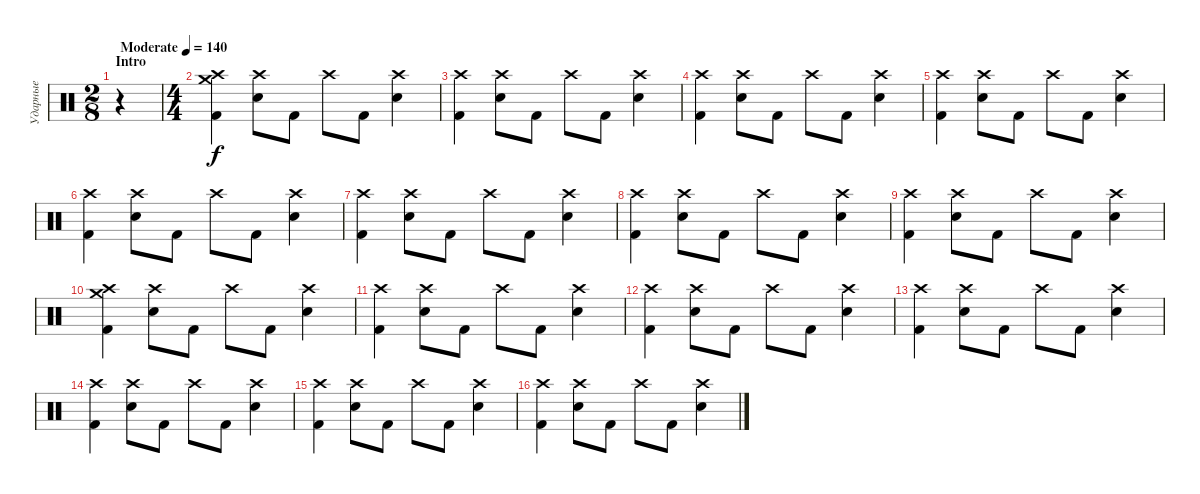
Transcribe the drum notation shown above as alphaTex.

\track ("Ударные" "Ударные") {instrument percussion}
\staff {score}
\articulation defaults
\ts (2 8)
\section ("" "Intro")
\tempo (140 "Moderate")
\clef neutral
\ks c
r.4{dy f} |
\ts (4 4)
("Crash high (hit)" "Crash medium (hit)" "Kick (hit) 2").4 ("Crash high (hit)" "Electric Snare (hit)").8 "Kick (hit) 2".8 "Crash high (hit)".8 "Kick (hit) 2".8 ("Crash high (hit)" "Electric Snare (hit)").4 |
("Crash high (hit)" "Kick (hit) 2").4 ("Crash high (hit)" "Electric Snare (hit)").8 "Kick (hit) 2".8 "Crash high (hit)".8 "Kick (hit) 2".8 ("Crash high (hit)" "Electric Snare (hit)").4 |
("Crash high (hit)" "Kick (hit) 2").4 ("Crash high (hit)" "Electric Snare (hit)").8 "Kick (hit) 2".8 "Crash high (hit)".8 "Kick (hit) 2".8 ("Crash high (hit)" "Electric Snare (hit)").4 |
("Crash high (hit)" "Kick (hit) 2").4 ("Crash high (hit)" "Electric Snare (hit)").8 "Kick (hit) 2".8 "Crash high (hit)".8 "Kick (hit) 2".8 ("Crash high (hit)" "Electric Snare (hit)").4 |
("Crash high (hit)" "Kick (hit) 2").4 ("Crash high (hit)" "Electric Snare (hit)").8 "Kick (hit) 2".8 "Crash high (hit)".8 "Kick (hit) 2".8 ("Crash high (hit)" "Electric Snare (hit)").4 |
("Crash high (hit)" "Kick (hit) 2").4 ("Crash high (hit)" "Electric Snare (hit)").8 "Kick (hit) 2".8 "Crash high (hit)".8 "Kick (hit) 2".8 ("Crash high (hit)" "Electric Snare (hit)").4 |
("Crash high (hit)" "Kick (hit) 2").4 ("Crash high (hit)" "Electric Snare (hit)").8 "Kick (hit) 2".8 "Crash high (hit)".8 "Kick (hit) 2".8 ("Crash high (hit)" "Electric Snare (hit)").4 |
("Crash high (hit)" "Kick (hit) 2").4 ("Crash high (hit)" "Electric Snare (hit)").8 "Kick (hit) 2".8 "Crash high (hit)".8 "Kick (hit) 2".8 ("Crash high (hit)" "Electric Snare (hit)").4 |
("Crash high (hit)" "Crash medium (hit)" "Kick (hit) 2").4 ("Crash high (hit)" "Electric Snare (hit)").8 "Kick (hit) 2".8 "Crash high (hit)".8 "Kick (hit) 2".8 ("Crash high (hit)" "Electric Snare (hit)").4 |
("Crash high (hit)" "Kick (hit) 2").4 ("Crash high (hit)" "Electric Snare (hit)").8 "Kick (hit) 2".8 "Crash high (hit)".8 "Kick (hit) 2".8 ("Crash high (hit)" "Electric Snare (hit)").4 |
("Crash high (hit)" "Kick (hit) 2").4 ("Crash high (hit)" "Electric Snare (hit)").8 "Kick (hit) 2".8 "Crash high (hit)".8 "Kick (hit) 2".8 ("Crash high (hit)" "Electric Snare (hit)").4 |
("Crash high (hit)" "Kick (hit) 2").4 ("Crash high (hit)" "Electric Snare (hit)").8 "Kick (hit) 2".8 "Crash high (hit)".8 "Kick (hit) 2".8 ("Crash high (hit)" "Electric Snare (hit)").4 |
("Crash high (hit)" "Kick (hit) 2").4 ("Crash high (hit)" "Electric Snare (hit)").8 "Kick (hit) 2".8 "Crash high (hit)".8 "Kick (hit) 2".8 ("Crash high (hit)" "Electric Snare (hit)").4 |
("Crash high (hit)" "Kick (hit) 2").4 ("Crash high (hit)" "Electric Snare (hit)").8 "Kick (hit) 2".8 "Crash high (hit)".8 "Kick (hit) 2".8 ("Crash high (hit)" "Electric Snare (hit)").4 |
("Crash high (hit)" "Kick (hit) 2").4 ("Crash high (hit)" "Electric Snare (hit)").8 "Kick (hit) 2".8 "Crash high (hit)".8 "Kick (hit) 2".8 ("Crash high (hit)" "Electric Snare (hit)").4
